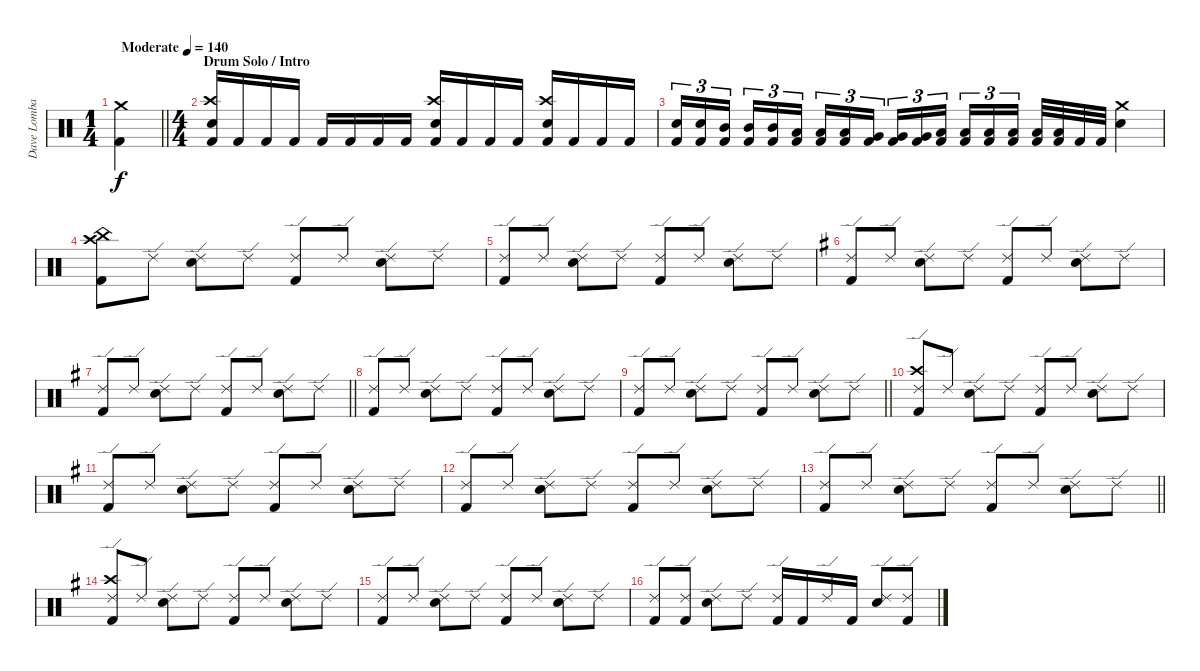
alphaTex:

\track ("Dave Lombardo" "Dave Lomba") {instrument percussion}
\staff {score}
\articulation defaults
\ts (1 4)
\tempo (140 "Moderate")
\clef neutral
\barLineRight lightlight
\ks c
("Crash medium (hit)" "Kick (hit) 2").4{dy f} |
\ts (4 4)
\section ("" "Drum Solo / Intro")
("Crash high (hit)" "Electric Snare (hit)" "Kick (hit) 2").16 "Kick (hit) 2".16 "Kick (hit) 2".16 "Kick (hit) 2".16 "Kick (hit) 2".16 "Kick (hit) 2".16 "Kick (hit) 2".16 "Kick (hit) 2".16 ("Crash high (hit)" "Electric Snare (hit)" "Kick (hit) 2").16 "Kick (hit) 2".16 "Kick (hit) 2".16 "Kick (hit) 2".16 ("Crash high (hit)" "Electric Snare (hit)" "Kick (hit) 2").16 "Kick (hit) 2".16 "Kick (hit) 2".16 "Kick (hit) 2".16 |
("Electric Snare (hit)" "Kick (hit) 2").16{tu (3 2)} ("Electric Snare (hit)" "Kick (hit) 2").16{tu (3 2)} ("Mid Tom (hit)" "Kick (hit) 2").16{tu (3 2) beam splitsecondary} ("Mid Tom (hit)" "Kick (hit) 2").16{tu (3 2)} ("Mid Tom (hit)" "Kick (hit) 2").16{tu (3 2)} ("Low Tom (hit)" "Kick (hit) 2").16{tu (3 2)} ("Low Tom (hit)" "Kick (hit) 2").16{tu (3 2)} ("Low Tom (hit)" "Kick (hit) 2").16{tu (3 2)} ("Very Low Tom (hit)" "Kick (hit) 2").16{tu (3 2) beam splitsecondary} ("Very Low Tom (hit)" "Kick (hit) 2").16{tu (3 2)} ("Very Low Tom (hit)" "Kick (hit) 2").16{tu (3 2)} ("Low Floor Tom (hit)" "Kick (hit) 2").16{tu (3 2)} ("Low Floor Tom (hit)" "Kick (hit) 2").16{tu (3 2)} ("Low Floor Tom (hit)" "Kick (hit) 2").16{tu (3 2)} ("Low Floor Tom (hit)" "Kick (hit) 2").16{tu (3 2) beam splitsecondary} ("Low Floor Tom (hit)" "Kick (hit) 2").32 ("Low Floor Tom (hit)" "Kick (hit) 2").32 "Kick (hit) 2".32 "Kick (hit) 2".32 ("Crash medium (hit)" "Electric Snare (hit)").4 |
("China (hit)" "Crash high (hit)" "Kick (hit) 2").8 "Ride (edge) 2".8 ("Ride (edge) 2" "Electric Snare (hit)").8 "Ride (edge) 2".8 ("Ride (edge) 2" "Kick (hit) 2").8 "Ride (edge) 2".8 ("Ride (edge) 2" "Electric Snare (hit)").8 "Ride (edge) 2".8 |
("Ride (edge) 2" "Kick (hit) 2").8 "Ride (edge) 2".8 ("Ride (edge) 2" "Electric Snare (hit)").8 "Ride (edge) 2".8 ("Ride (edge) 2" "Kick (hit) 2").8 "Ride (edge) 2".8 ("Ride (edge) 2" "Electric Snare (hit)").8 "Ride (edge) 2".8 |
\ks g
("Ride (edge) 2" "Kick (hit) 2").8 "Ride (edge) 2".8 ("Ride (edge) 2" "Electric Snare (hit)").8 "Ride (edge) 2".8 ("Ride (edge) 2" "Kick (hit) 2").8 "Ride (edge) 2".8 ("Ride (edge) 2" "Electric Snare (hit)").8 "Ride (edge) 2".8 |
\barLineRight lightlight
("Ride (edge) 2" "Kick (hit) 2").8 "Ride (edge) 2".8 ("Ride (edge) 2" "Electric Snare (hit)").8 "Ride (edge) 2".8 ("Ride (edge) 2" "Kick (hit) 2").8 "Ride (edge) 2".8 ("Ride (edge) 2" "Electric Snare (hit)").8 "Ride (edge) 2".8 |
("Ride (edge) 2" "Kick (hit) 2").8 "Ride (edge) 2".8 ("Ride (edge) 2" "Electric Snare (hit)").8 "Ride (edge) 2".8 ("Ride (edge) 2" "Kick (hit) 2").8 "Ride (edge) 2".8 ("Ride (edge) 2" "Electric Snare (hit)").8 "Ride (edge) 2".8 |
\barLineRight lightlight
("Ride (edge) 2" "Kick (hit) 2").8 "Ride (edge) 2".8 ("Ride (edge) 2" "Electric Snare (hit)").8 "Ride (edge) 2".8 ("Ride (edge) 2" "Kick (hit) 2").8 "Ride (edge) 2".8 ("Ride (edge) 2" "Electric Snare (hit)").8 "Ride (edge) 2".8 |
("Crash high (hit)" "Ride (edge) 2" "Kick (hit) 2").8 "Ride (edge) 2".8 ("Ride (edge) 2" "Electric Snare (hit)").8 "Ride (edge) 2".8 ("Ride (edge) 2" "Kick (hit) 2").8 "Ride (edge) 2".8 ("Ride (edge) 2" "Electric Snare (hit)").8 "Ride (edge) 2".8 |
("Ride (edge) 2" "Kick (hit) 2").8 "Ride (edge) 2".8 ("Ride (edge) 2" "Electric Snare (hit)").8 "Ride (edge) 2".8 ("Ride (edge) 2" "Kick (hit) 2").8 "Ride (edge) 2".8 ("Ride (edge) 2" "Electric Snare (hit)").8 "Ride (edge) 2".8 |
("Ride (edge) 2" "Kick (hit) 2").8 "Ride (edge) 2".8 ("Ride (edge) 2" "Electric Snare (hit)").8 "Ride (edge) 2".8 ("Ride (edge) 2" "Kick (hit) 2").8 "Ride (edge) 2".8 ("Ride (edge) 2" "Electric Snare (hit)").8 "Ride (edge) 2".8 |
\barLineRight lightlight
("Ride (edge) 2" "Kick (hit) 2").8 "Ride (edge) 2".8 ("Ride (edge) 2" "Electric Snare (hit)").8 "Ride (edge) 2".8 ("Ride (edge) 2" "Kick (hit) 2").8 "Ride (edge) 2".8 ("Ride (edge) 2" "Electric Snare (hit)").8 "Ride (edge) 2".8 |
("Crash high (hit)" "Ride (edge) 2" "Kick (hit) 2").8 "Ride (edge) 2".8 ("Ride (edge) 2" "Electric Snare (hit)").8 "Ride (edge) 2".8 ("Ride (edge) 2" "Kick (hit) 2").8 "Ride (edge) 2".8 ("Ride (edge) 2" "Electric Snare (hit)").8 "Ride (edge) 2".8 |
("Ride (edge) 2" "Kick (hit) 2").8 "Ride (edge) 2".8 ("Ride (edge) 2" "Electric Snare (hit)").8 "Ride (edge) 2".8 ("Ride (edge) 2" "Kick (hit) 2").8 "Ride (edge) 2".8 ("Ride (edge) 2" "Electric Snare (hit)").8 "Ride (edge) 2".8 |
("Ride (edge) 2" "Kick (hit) 2").8 ("Ride (edge) 2" "Kick (hit) 2").8 ("Ride (edge) 2" "Electric Snare (hit)").8 "Ride (edge) 2".8 ("Ride (edge) 2" "Kick (hit) 2").16 "Kick (hit) 2".16 "Ride (edge) 2".16 "Kick (hit) 2".16 ("Ride (edge) 2" "Electric Snare (hit)").8 ("Ride (edge) 2" "Kick (hit) 2").8
